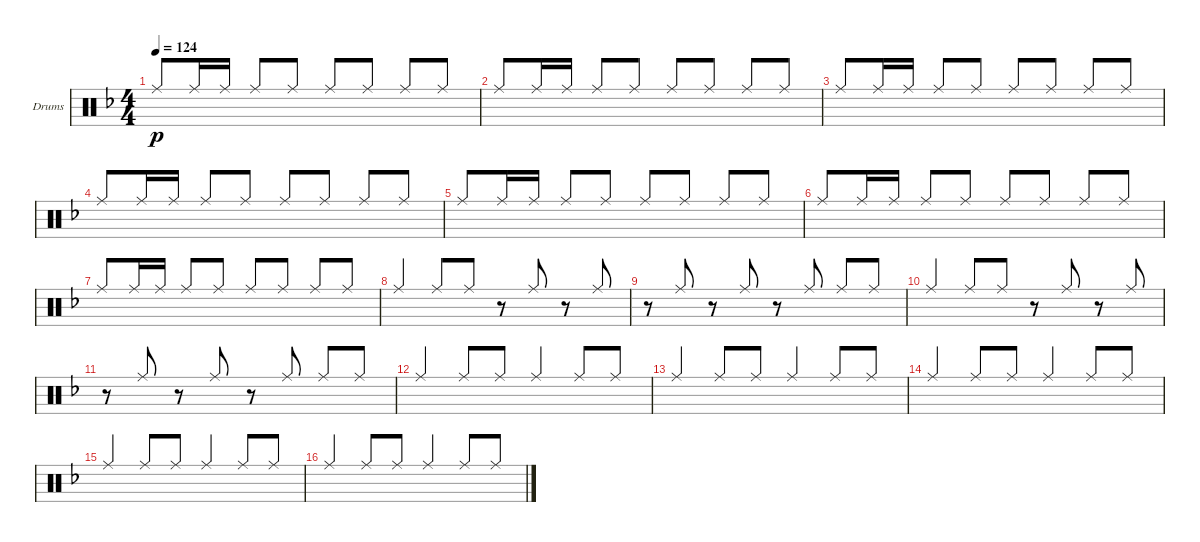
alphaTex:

\bracketExtendMode groupsimilarinstruments
\firstSystemTrackNameOrientation horizontal
\otherSystemsTrackNameOrientation horizontal
\track ("Ride Cymbal" "Drums") {instrument percussion}
\staff {score}
\articulation defaults
\ts (4 4)
\tempo 124
\clef neutral
\scale
0.333333
\ks dminor "Ride (middle)".8{dy p beam invert} "Ride (middle)".16 "Ride (middle)".16 "Ride (middle)".8{beam invert} "Ride (middle)".8 "Ride (middle)".8{beam invert} "Ride (middle)".8 "Ride (middle)".8{beam invert} "Ride (middle)".8
|
\scale
0.333333 "Ride (middle)".8{beam invert} "Ride (middle)".16 "Ride (middle)".16 "Ride (middle)".8{beam invert} "Ride (middle)".8 "Ride (middle)".8{beam invert} "Ride (middle)".8 "Ride (middle)".8{beam invert} "Ride (middle)".8 |
\scale
0.333333 "Ride (middle)".8{beam invert} "Ride (middle)".16 "Ride (middle)".16 "Ride (middle)".8{beam invert} "Ride (middle)".8 "Ride (middle)".8{beam invert} "Ride (middle)".8 "Ride (middle)".8{beam invert} "Ride (middle)".8 |
\scale
0.333333 "Ride (middle)".8{beam invert} "Ride (middle)".16 "Ride (middle)".16 "Ride (middle)".8{beam invert} "Ride (middle)".8 "Ride (middle)".8{beam invert} "Ride (middle)".8 "Ride (middle)".8{beam invert} "Ride (middle)".8 |
\scale
0.333333 "Ride (middle)".8{beam invert} "Ride (middle)".16 "Ride (middle)".16 "Ride (middle)".8{beam invert} "Ride (middle)".8 "Ride (middle)".8{beam invert} "Ride (middle)".8 "Ride (middle)".8{beam invert} "Ride (middle)".8 |
\scale
0.333333 "Ride (middle)".8{beam invert} "Ride (middle)".16 "Ride (middle)".16 "Ride (middle)".8{beam invert} "Ride (middle)".8 "Ride (middle)".8{beam invert} "Ride (middle)".8 "Ride (middle)".8{beam invert} "Ride (middle)".8 |
\scale
0.333333 "Ride (middle)".8{beam invert} "Ride (middle)".16 "Ride (middle)".16 "Ride (middle)".8{beam invert} "Ride (middle)".8 "Ride (middle)".8{beam invert} "Ride (middle)".8 "Ride (middle)".8{beam invert} "Ride (middle)".8 |
\scale
0.301075 "Ride (middle)".4{beam invert} "Ride (middle)".8{beam invert} "Ride (middle)".8 r.8{beam invert} "Ride (middle)".8{beam invert} r.8{beam invert} "Ride (middle)".8{beam invert} |
\scale
0.365591 r.8{beam invert} "Ride (middle)".8{beam invert} r.8{beam invert} "Ride (middle)".8{beam invert} r.8{beam invert} "Ride (middle)".8{beam invert} "Ride (middle)".8{beam invert} "Ride (middle)".8 |
"Ride (middle)".4{beam invert} "Ride (middle)".8{beam invert} "Ride (middle)".8 r.8{beam invert} "Ride (middle)".8{beam invert} r.8{beam invert} "Ride (middle)".8{beam invert} |
r.8{beam invert} "Ride (middle)".8{beam invert} r.8{beam invert} "Ride (middle)".8{beam invert} r.8{beam invert} "Ride (middle)".8{beam invert} "Ride (middle)".8{beam invert} "Ride (middle)".8 |
\scale
0.333333 "Ride (middle)".4{beam invert} "Ride (middle)".8{beam invert} "Ride (middle)".8 "Ride (middle)".4{beam invert} "Ride (middle)".8{beam invert} "Ride (middle)".8 |
\scale
0.333333 "Ride (middle)".4{beam invert} "Ride (middle)".8{beam invert} "Ride (middle)".8 "Ride (middle)".4{beam invert} "Ride (middle)".8{beam invert} "Ride (middle)".8 |
\scale
0.333333 "Ride (middle)".4{beam invert} "Ride (middle)".8{beam invert} "Ride (middle)".8 "Ride (middle)".4{beam invert} "Ride (middle)".8{beam invert} "Ride (middle)".8 |
\scale
0.333333 "Ride (middle)".4{beam invert} "Ride (middle)".8{beam invert} "Ride (middle)".8 "Ride (middle)".4{beam invert} "Ride (middle)".8{beam invert} "Ride (middle)".8 |
\scale
0.333333 "Ride (middle)".4{beam invert} "Ride (middle)".8{beam invert} "Ride (middle)".8 "Ride (middle)".4{beam invert} "Ride (middle)".8{beam invert} "Ride (middle)".8
